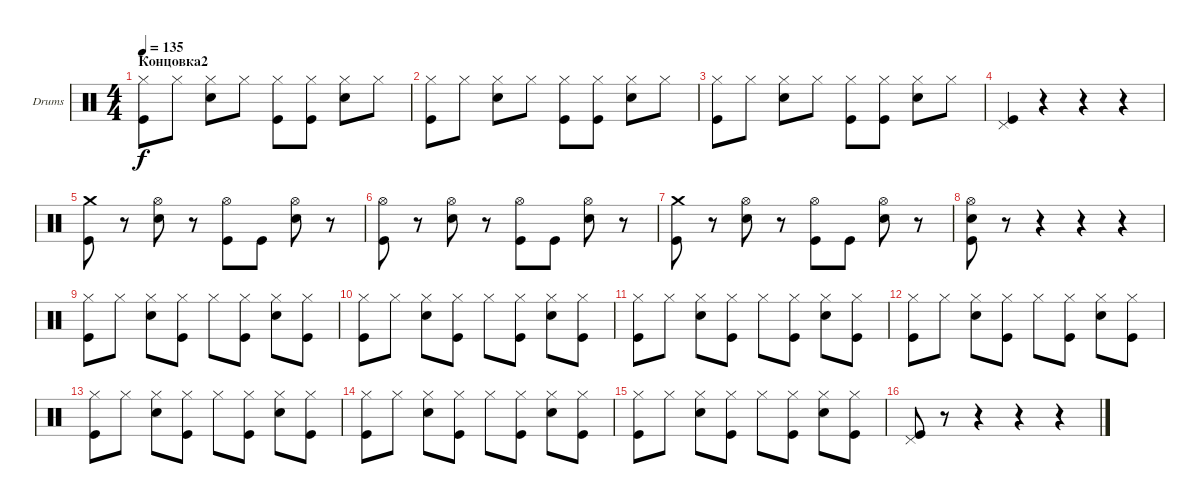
\defaultSystemsLayout 4
\bracketExtendMode groupsimilarinstruments
\firstSystemTrackNameOrientation horizontal
\otherSystemsTrackNameOrientation horizontal
\track ("Drumkit" "Drums") {instrument percussion}
\staff {score}
\articulation defaults
\ts (4 4)
\section ("" "Концовка2")
\tempo 135
\clef neutral
\ks c
("Hi-Hat (closed)" "Kick (hit)").8{dy f} "Hi-Hat (closed)".8 ("Hi-Hat (closed)" "Snare (hit) 2").8 "Hi-Hat (closed)".8 ("Hi-Hat (closed)" "Kick (hit)").8 ("Hi-Hat (closed)" "Kick (hit)").8 ("Hi-Hat (closed)" "Snare (hit) 2").8 "Hi-Hat (closed)".8 |
("Hi-Hat (closed)" "Kick (hit)").8 "Hi-Hat (closed)".8 ("Hi-Hat (closed)" "Snare (hit) 2").8 "Hi-Hat (closed)".8 ("Hi-Hat (closed)" "Kick (hit)").8 ("Hi-Hat (closed)" "Kick (hit)").8 ("Hi-Hat (closed)" "Snare (hit) 2").8 "Hi-Hat (closed)".8 |
("Hi-Hat (closed)" "Kick (hit)").8 "Hi-Hat (closed)".8 ("Hi-Hat (closed)" "Snare (hit) 2").8 "Hi-Hat (closed)".8 ("Hi-Hat (closed)" "Kick (hit)").8 ("Hi-Hat (closed)" "Kick (hit)").8 ("Hi-Hat (closed)" "Snare (hit) 2").8 "Hi-Hat (closed)".8 |
("Kick (hit)" "Pedal Hi-Hat (hit)").4 r.4 r.4 r.4 |
("Kick (hit)" "Crash medium (hit)").8 r.8 ("Snare (hit) 2" "Hi-Hat (open)").8 r.8 ("Kick (hit)" "Hi-Hat (open)").8 "Kick (hit)".8 ("Snare (hit) 2" "Hi-Hat (open)").8 r.8 |
("Kick (hit)" "Hi-Hat (open)").8 r.8 ("Snare (hit) 2" "Hi-Hat (open)").8 r.8 ("Kick (hit)" "Hi-Hat (open)").8 "Kick (hit)".8 ("Snare (hit) 2" "Hi-Hat (open)").8 r.8 |
("Kick (hit)" "Crash medium (hit)").8 r.8 ("Snare (hit) 2" "Hi-Hat (open)").8 r.8 ("Kick (hit)" "Hi-Hat (open)").8 "Kick (hit)".8 ("Snare (hit) 2" "Hi-Hat (open)").8 r.8 |
("Kick (hit)" "Hi-Hat (open)" "Snare (hit) 2").8 r.8 r.4 r.4 r.4 |
("Hi-Hat (closed)" "Kick (hit)").8 "Hi-Hat (closed)".8 ("Hi-Hat (closed)" "Snare (hit) 2").8 ("Hi-Hat (closed)" "Kick (hit)").8 "Hi-Hat (closed)".8 ("Hi-Hat (closed)" "Kick (hit)").8 ("Hi-Hat (closed)" "Snare (hit) 2").8 ("Hi-Hat (closed)" "Kick (hit)").8 |
("Hi-Hat (closed)" "Kick (hit)").8 "Hi-Hat (closed)".8 ("Hi-Hat (closed)" "Snare (hit) 2").8 ("Hi-Hat (closed)" "Kick (hit)").8 "Hi-Hat (closed)".8 ("Hi-Hat (closed)" "Kick (hit)").8 ("Hi-Hat (closed)" "Snare (hit) 2").8 ("Hi-Hat (closed)" "Kick (hit)").8 |
("Hi-Hat (closed)" "Kick (hit)").8 "Hi-Hat (closed)".8 ("Hi-Hat (closed)" "Snare (hit) 2").8 ("Hi-Hat (closed)" "Kick (hit)").8 "Hi-Hat (closed)".8 ("Hi-Hat (closed)" "Kick (hit)").8 ("Hi-Hat (closed)" "Snare (hit) 2").8 ("Hi-Hat (closed)" "Kick (hit)").8 |
("Hi-Hat (closed)" "Kick (hit)").8 "Hi-Hat (closed)".8 ("Hi-Hat (closed)" "Snare (hit) 2").8 ("Hi-Hat (closed)" "Kick (hit)").8 "Hi-Hat (closed)".8 ("Hi-Hat (closed)" "Kick (hit)").8 ("Hi-Hat (closed)" "Snare (hit) 2").8 ("Hi-Hat (closed)" "Kick (hit)").8 |
("Hi-Hat (closed)" "Kick (hit)").8 "Hi-Hat (closed)".8 ("Hi-Hat (closed)" "Snare (hit) 2").8 ("Hi-Hat (closed)" "Kick (hit)").8 "Hi-Hat (closed)".8 ("Hi-Hat (closed)" "Kick (hit)").8 ("Hi-Hat (closed)" "Snare (hit) 2").8 ("Hi-Hat (closed)" "Kick (hit)").8 |
("Hi-Hat (closed)" "Kick (hit)").8 "Hi-Hat (closed)".8 ("Hi-Hat (closed)" "Snare (hit) 2").8 ("Hi-Hat (closed)" "Kick (hit)").8 "Hi-Hat (closed)".8 ("Hi-Hat (closed)" "Kick (hit)").8 ("Hi-Hat (closed)" "Snare (hit) 2").8 ("Hi-Hat (closed)" "Kick (hit)").8 |
("Hi-Hat (closed)" "Kick (hit)").8 "Hi-Hat (closed)".8 ("Hi-Hat (closed)" "Snare (hit) 2").8 ("Hi-Hat (closed)" "Kick (hit)").8 "Hi-Hat (closed)".8 ("Hi-Hat (closed)" "Kick (hit)").8 ("Hi-Hat (closed)" "Snare (hit) 2").8 ("Hi-Hat (closed)" "Kick (hit)").8 |
("Kick (hit)" "Pedal Hi-Hat (hit)").8 r.8 r.4 r.4 r.4
